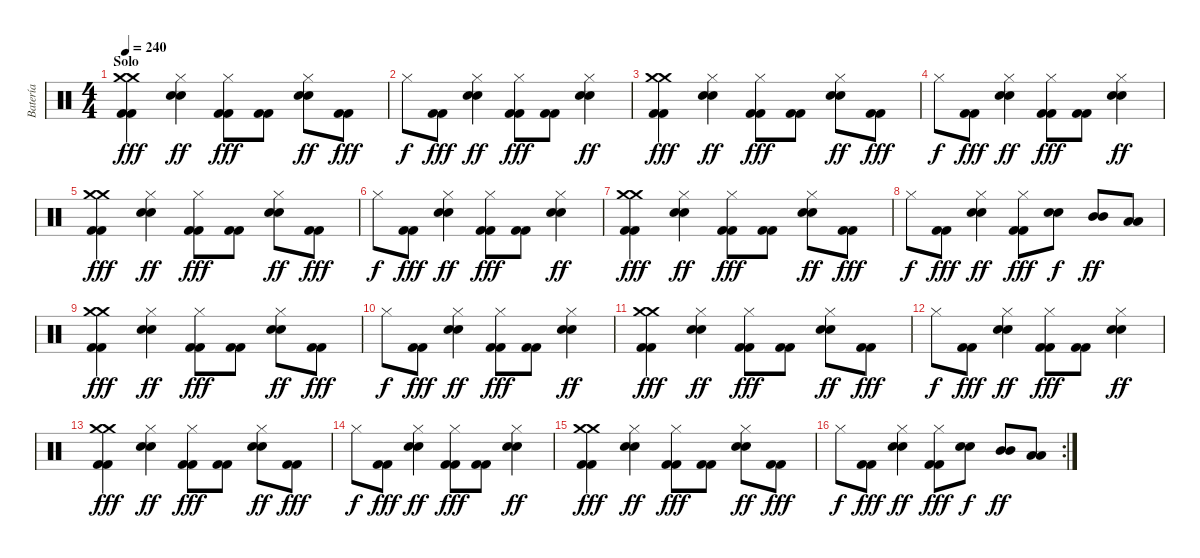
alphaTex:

\track ("Batería" "Batería") {instrument percussion}
\staff {score}
\articulation defaults
\ts (4 4)
\section ("" "Solo")
\tempo 240
\clef neutral
\ks c
("Crash medium (hit)" "Crash medium (hit)" "Kick (hit) 2" "Kick (hit) 2").4{dy fff} ("Hi-Hat (closed)" "Electric Snare (hit)" "Electric Snare (hit)").4{dy ff} ("Hi-Hat (closed)" "Kick (hit) 2" "Kick (hit) 2").8{dy fff} ("Kick (hit) 2" "Kick (hit) 2").8 ("Hi-Hat (closed)" "Electric Snare (hit)" "Electric Snare (hit)").8{dy ff} ("Kick (hit) 2" "Kick (hit) 2").8{dy fff} |
"Hi-Hat (closed)".8{dy f} ("Kick (hit) 2" "Kick (hit) 2").8{dy fff} ("Hi-Hat (closed)" "Electric Snare (hit)" "Electric Snare (hit)").4{dy ff} ("Hi-Hat (closed)" "Kick (hit) 2" "Kick (hit) 2").8{dy fff} ("Kick (hit) 2" "Kick (hit) 2").8 ("Hi-Hat (closed)" "Electric Snare (hit)" "Electric Snare (hit)").4{dy ff} |
("Crash medium (hit)" "Crash medium (hit)" "Kick (hit) 2" "Kick (hit) 2").4{dy fff} ("Hi-Hat (closed)" "Electric Snare (hit)" "Electric Snare (hit)").4{dy ff} ("Hi-Hat (closed)" "Kick (hit) 2" "Kick (hit) 2").8{dy fff} ("Kick (hit) 2" "Kick (hit) 2").8 ("Hi-Hat (closed)" "Electric Snare (hit)" "Electric Snare (hit)").8{dy ff} ("Kick (hit) 2" "Kick (hit) 2").8{dy fff} |
"Hi-Hat (closed)".8{dy f} ("Kick (hit) 2" "Kick (hit) 2").8{dy fff} ("Hi-Hat (closed)" "Electric Snare (hit)" "Electric Snare (hit)").4{dy ff} ("Hi-Hat (closed)" "Kick (hit) 2" "Kick (hit) 2").8{dy fff} ("Kick (hit) 2" "Kick (hit) 2").8 ("Hi-Hat (closed)" "Electric Snare (hit)" "Electric Snare (hit)").4{dy ff} |
("Crash medium (hit)" "Crash medium (hit)" "Kick (hit) 2" "Kick (hit) 2").4{dy fff} ("Hi-Hat (closed)" "Electric Snare (hit)" "Electric Snare (hit)").4{dy ff} ("Hi-Hat (closed)" "Kick (hit) 2" "Kick (hit) 2").8{dy fff} ("Kick (hit) 2" "Kick (hit) 2").8 ("Hi-Hat (closed)" "Electric Snare (hit)" "Electric Snare (hit)").8{dy ff} ("Kick (hit) 2" "Kick (hit) 2").8{dy fff} |
"Hi-Hat (closed)".8{dy f} ("Kick (hit) 2" "Kick (hit) 2").8{dy fff} ("Hi-Hat (closed)" "Electric Snare (hit)" "Electric Snare (hit)").4{dy ff} ("Hi-Hat (closed)" "Kick (hit) 2" "Kick (hit) 2").8{dy fff} ("Kick (hit) 2" "Kick (hit) 2").8 ("Hi-Hat (closed)" "Electric Snare (hit)" "Electric Snare (hit)").4{dy ff} |
("Crash medium (hit)" "Crash medium (hit)" "Kick (hit) 2" "Kick (hit) 2").4{dy fff} ("Hi-Hat (closed)" "Electric Snare (hit)" "Electric Snare (hit)").4{dy ff} ("Hi-Hat (closed)" "Kick (hit) 2" "Kick (hit) 2").8{dy fff} ("Kick (hit) 2" "Kick (hit) 2").8 ("Hi-Hat (closed)" "Electric Snare (hit)" "Electric Snare (hit)").8{dy ff} ("Kick (hit) 2" "Kick (hit) 2").8{dy fff} |
"Hi-Hat (closed)".8{dy f} ("Kick (hit) 2" "Kick (hit) 2").8{dy fff} ("Hi-Hat (closed)" "Electric Snare (hit)" "Electric Snare (hit)").4{dy ff} ("Hi-Hat (closed)" "Kick (hit) 2" "Kick (hit) 2").8{dy fff} ("Electric Snare (hit)" "Electric Snare (hit)").8{dy f} ("Mid Tom (hit)" "Mid Tom (hit)").8{dy ff} ("Low Tom (hit)" "Low Tom (hit)").8 |
("Crash medium (hit)" "Crash medium (hit)" "Kick (hit) 2" "Kick (hit) 2").4{dy fff} ("Hi-Hat (closed)" "Electric Snare (hit)" "Electric Snare (hit)").4{dy ff} ("Hi-Hat (closed)" "Kick (hit) 2" "Kick (hit) 2").8{dy fff} ("Kick (hit) 2" "Kick (hit) 2").8 ("Hi-Hat (closed)" "Electric Snare (hit)" "Electric Snare (hit)").8{dy ff} ("Kick (hit) 2" "Kick (hit) 2").8{dy fff} |
"Hi-Hat (closed)".8{dy f} ("Kick (hit) 2" "Kick (hit) 2").8{dy fff} ("Hi-Hat (closed)" "Electric Snare (hit)" "Electric Snare (hit)").4{dy ff} ("Hi-Hat (closed)" "Kick (hit) 2" "Kick (hit) 2").8{dy fff} ("Kick (hit) 2" "Kick (hit) 2").8 ("Hi-Hat (closed)" "Electric Snare (hit)" "Electric Snare (hit)").4{dy ff} |
("Crash medium (hit)" "Crash medium (hit)" "Kick (hit) 2" "Kick (hit) 2").4{dy fff} ("Hi-Hat (closed)" "Electric Snare (hit)" "Electric Snare (hit)").4{dy ff} ("Hi-Hat (closed)" "Kick (hit) 2" "Kick (hit) 2").8{dy fff} ("Kick (hit) 2" "Kick (hit) 2").8 ("Hi-Hat (closed)" "Electric Snare (hit)" "Electric Snare (hit)").8{dy ff} ("Kick (hit) 2" "Kick (hit) 2").8{dy fff} |
"Hi-Hat (closed)".8{dy f} ("Kick (hit) 2" "Kick (hit) 2").8{dy fff} ("Hi-Hat (closed)" "Electric Snare (hit)" "Electric Snare (hit)").4{dy ff} ("Hi-Hat (closed)" "Kick (hit) 2" "Kick (hit) 2").8{dy fff} ("Kick (hit) 2" "Kick (hit) 2").8 ("Hi-Hat (closed)" "Electric Snare (hit)" "Electric Snare (hit)").4{dy ff} |
("Crash medium (hit)" "Crash medium (hit)" "Kick (hit) 2" "Kick (hit) 2").4{dy fff} ("Hi-Hat (closed)" "Electric Snare (hit)" "Electric Snare (hit)").4{dy ff} ("Hi-Hat (closed)" "Kick (hit) 2" "Kick (hit) 2").8{dy fff} ("Kick (hit) 2" "Kick (hit) 2").8 ("Hi-Hat (closed)" "Electric Snare (hit)" "Electric Snare (hit)").8{dy ff} ("Kick (hit) 2" "Kick (hit) 2").8{dy fff} |
"Hi-Hat (closed)".8{dy f} ("Kick (hit) 2" "Kick (hit) 2").8{dy fff} ("Hi-Hat (closed)" "Electric Snare (hit)" "Electric Snare (hit)").4{dy ff} ("Hi-Hat (closed)" "Kick (hit) 2" "Kick (hit) 2").8{dy fff} ("Kick (hit) 2" "Kick (hit) 2").8 ("Hi-Hat (closed)" "Electric Snare (hit)" "Electric Snare (hit)").4{dy ff} |
("Crash medium (hit)" "Crash medium (hit)" "Kick (hit) 2" "Kick (hit) 2").4{dy fff} ("Hi-Hat (closed)" "Electric Snare (hit)" "Electric Snare (hit)").4{dy ff} ("Hi-Hat (closed)" "Kick (hit) 2" "Kick (hit) 2").8{dy fff} ("Kick (hit) 2" "Kick (hit) 2").8 ("Hi-Hat (closed)" "Electric Snare (hit)" "Electric Snare (hit)").8{dy ff} ("Kick (hit) 2" "Kick (hit) 2").8{dy fff} |
\rc 2 "Hi-Hat (closed)".8{dy f}
("Kick (hit) 2" "Kick (hit) 2").8{dy fff} ("Hi-Hat (closed)" "Electric Snare (hit)" "Electric Snare (hit)").4{dy ff} ("Hi-Hat (closed)" "Kick (hit) 2" "Kick (hit) 2").8{dy fff} ("Electric Snare (hit)" "Electric Snare (hit)").8{dy f} ("Mid Tom (hit)" "Mid Tom (hit)").8{dy ff} ("Low Tom (hit)" "Low Tom (hit)").8
